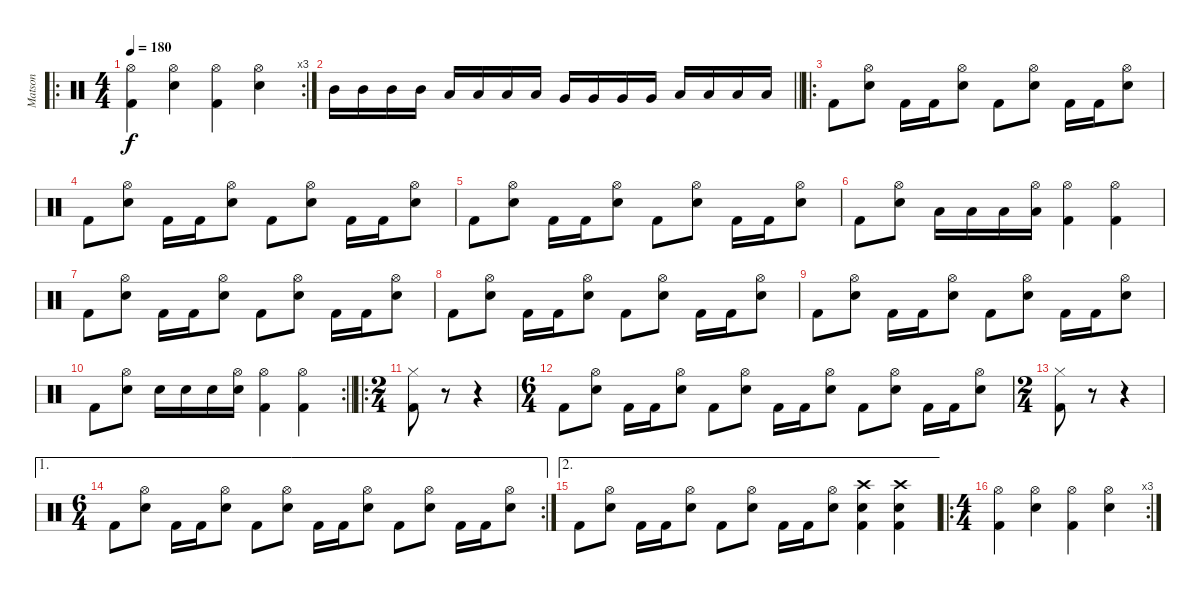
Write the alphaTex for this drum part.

\track ("Matson" "Matson") {instrument percussion}
\staff {score}
\articulation defaults
\ro
\rc 3
\ts (4 4)
\tempo 180
\clef neutral
\ks c
("Hi-Hat (open)" "Kick (hit) 2").4{dy f} ("Hi-Hat (open)" "Snare (hit) 2").4 ("Hi-Hat (open)" "Kick (hit) 2").4 ("Hi-Hat (open)" "Snare (hit) 2").4 |
\barLineRight lightlight "Mid Tom (hit)".16 "Mid Tom (hit)".16 "Mid Tom (hit)".16 "Mid Tom (hit)".16 "Low Tom (hit)".16 "Low Tom (hit)".16 "Low Tom (hit)".16 "Low Tom (hit)".16 "Very Low Tom (hit)".16 "Very Low Tom (hit)".16 "Very Low Tom (hit)".16 "Very Low Tom (hit)".16 "Low Floor Tom (hit)".16 "Low Floor Tom (hit)".16 "Low Floor Tom (hit)".16 "Low Floor Tom (hit)".16
|
\ro
\section ("" "")
"Kick (hit) 2".8 ("Hi-Hat (open)" "Snare (hit) 2").8 "Kick (hit) 2".16 "Kick (hit) 2".16 ("Hi-Hat (open)" "Snare (hit) 2").8 "Kick (hit) 2".8 ("Hi-Hat (open)" "Snare (hit) 2").8 "Kick (hit) 2".16 "Kick (hit) 2".16 ("Hi-Hat (open)" "Snare (hit) 2").8 |
"Kick (hit) 2".8 ("Hi-Hat (open)" "Snare (hit) 2").8 "Kick (hit) 2".16 "Kick (hit) 2".16 ("Hi-Hat (open)" "Snare (hit) 2").8 "Kick (hit) 2".8 ("Hi-Hat (open)" "Snare (hit) 2").8 "Kick (hit) 2".16 "Kick (hit) 2".16 ("Hi-Hat (open)" "Snare (hit) 2").8 |
"Kick (hit) 2".8 ("Hi-Hat (open)" "Snare (hit) 2").8 "Kick (hit) 2".16 "Kick (hit) 2".16 ("Hi-Hat (open)" "Snare (hit) 2").8 "Kick (hit) 2".8 ("Hi-Hat (open)" "Snare (hit) 2").8 "Kick (hit) 2".16 "Kick (hit) 2".16 ("Hi-Hat (open)" "Snare (hit) 2").8 |
"Kick (hit) 2".8 ("Hi-Hat (open)" "Snare (hit) 2").8 "Low Tom (hit)".16 "Low Tom (hit)".16 "Low Tom (hit)".16 ("Hi-Hat (open)" "Low Tom (hit)").16 ("Hi-Hat (open)" "Kick (hit) 2").4 ("Hi-Hat (open)" "Kick (hit) 2").4 |
"Kick (hit) 2".8 ("Hi-Hat (open)" "Snare (hit) 2").8 "Kick (hit) 2".16 "Kick (hit) 2".16 ("Hi-Hat (open)" "Snare (hit) 2").8 "Kick (hit) 2".8 ("Hi-Hat (open)" "Snare (hit) 2").8 "Kick (hit) 2".16 "Kick (hit) 2".16 ("Hi-Hat (open)" "Snare (hit) 2").8 |
"Kick (hit) 2".8 ("Hi-Hat (open)" "Snare (hit) 2").8 "Kick (hit) 2".16 "Kick (hit) 2".16 ("Hi-Hat (open)" "Snare (hit) 2").8 "Kick (hit) 2".8 ("Hi-Hat (open)" "Snare (hit) 2").8 "Kick (hit) 2".16 "Kick (hit) 2".16 ("Hi-Hat (open)" "Snare (hit) 2").8 |
"Kick (hit) 2".8 ("Hi-Hat (open)" "Snare (hit) 2").8 "Kick (hit) 2".16 "Kick (hit) 2".16 ("Hi-Hat (open)" "Snare (hit) 2").8 "Kick (hit) 2".8 ("Hi-Hat (open)" "Snare (hit) 2").8 "Kick (hit) 2".16 "Kick (hit) 2".16 ("Hi-Hat (open)" "Snare (hit) 2").8 |
\rc 2
\barLineRight lightlight "Kick (hit) 2".8
("Hi-Hat (open)" "Snare (hit) 2").8 "Snare (hit) 2".16 "Snare (hit) 2".16 "Snare (hit) 2".16 ("Hi-Hat (open)" "Snare (hit) 2").16 ("Hi-Hat (open)" "Kick (hit) 2").4 ("Hi-Hat (open)" "Kick (hit) 2").4 |
\ro
\ts (2 4)
\section ("" "")
("Hi-Hat (closed)" "Kick (hit) 2").8 r.8 r.4 |
\ts (6 4)
"Kick (hit) 2".8 ("Hi-Hat (open)" "Snare (hit) 2").8 "Kick (hit) 2".16 "Kick (hit) 2".16 ("Hi-Hat (open)" "Snare (hit) 2").8 "Kick (hit) 2".8 ("Hi-Hat (open)" "Snare (hit) 2").8 "Kick (hit) 2".16 "Kick (hit) 2".16 ("Hi-Hat (open)" "Snare (hit) 2").8 "Kick (hit) 2".8 ("Hi-Hat (open)" "Snare (hit) 2").8 "Kick (hit) 2".16 "Kick (hit) 2".16 ("Hi-Hat (open)" "Snare (hit) 2").8 |
\ts (2 4)
("Hi-Hat (closed)" "Kick (hit) 2").8 r.8 r.4 |
\ae 1
\rc 2
\ts (6 4)
"Kick (hit) 2".8 ("Hi-Hat (open)" "Snare (hit) 2").8 "Kick (hit) 2".16 "Kick (hit) 2".16 ("Hi-Hat (open)" "Snare (hit) 2").8 "Kick (hit) 2".8 ("Hi-Hat (open)" "Snare (hit) 2").8 "Kick (hit) 2".16 "Kick (hit) 2".16 ("Hi-Hat (open)" "Snare (hit) 2").8 "Kick (hit) 2".8 ("Hi-Hat (open)" "Snare (hit) 2").8 "Kick (hit) 2".16 "Kick (hit) 2".16 ("Hi-Hat (open)" "Snare (hit) 2").8 |
\ae 2 "Kick (hit) 2".8
("Hi-Hat (open)" "Snare (hit) 2").8 "Kick (hit) 2".16 "Kick (hit) 2".16 ("Hi-Hat (open)" "Snare (hit) 2").8 "Kick (hit) 2".8 ("Hi-Hat (open)" "Snare (hit) 2").8 "Kick (hit) 2".16 "Kick (hit) 2".16 ("Hi-Hat (open)" "Snare (hit) 2").8 ("Crash high (hit)" "Snare (hit) 2" "Kick (hit) 2").4 ("Crash high (hit)" "Snare (hit) 2" "Kick (hit) 2").4 |
\ro
\rc 3
\ts (4 4)
("Hi-Hat (open)" "Kick (hit) 2").4 ("Hi-Hat (open)" "Snare (hit) 2").4 ("Hi-Hat (open)" "Kick (hit) 2").4 ("Hi-Hat (open)" "Snare (hit) 2").4
